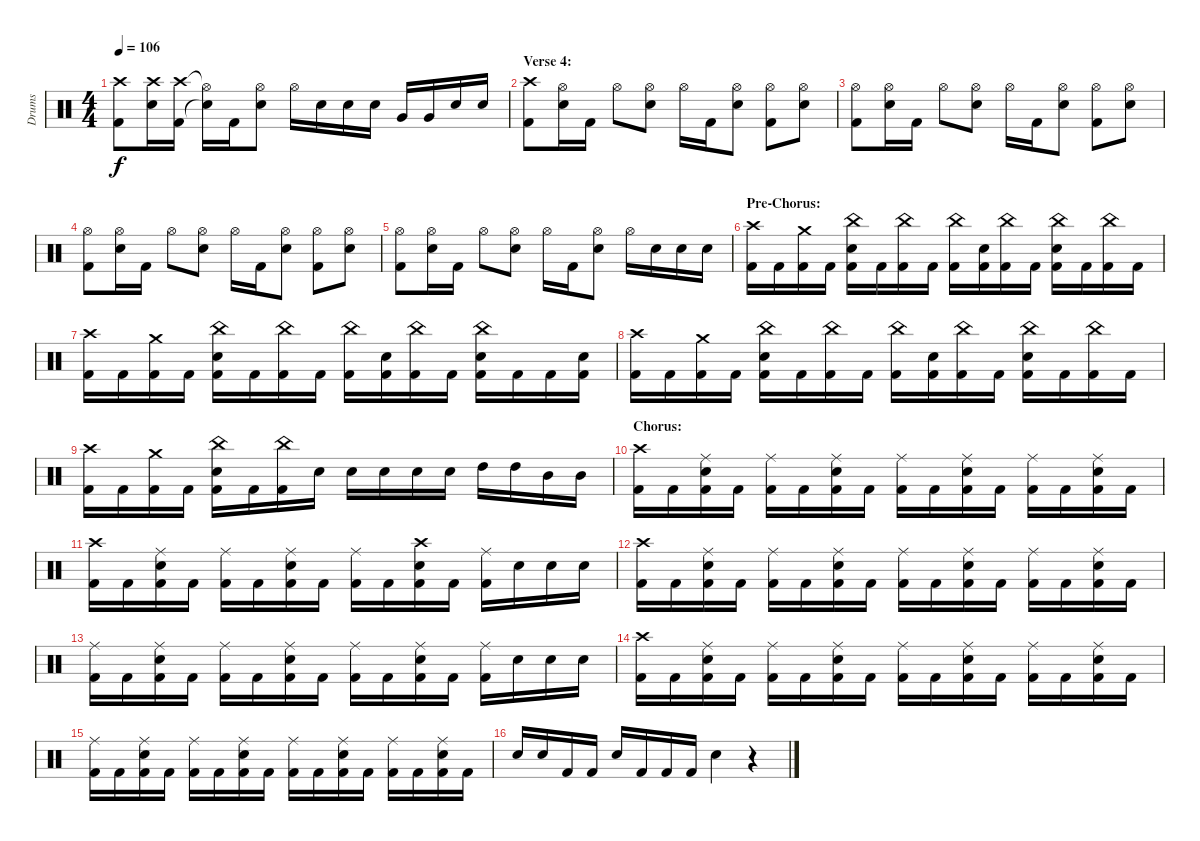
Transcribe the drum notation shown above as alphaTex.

\track ("Drums" "Drums") {instrument percussion}
\staff {score}
\articulation defaults
\ts (4 4)
\tempo 106
\clef neutral
\ks c
("Crash high (hit)" "Kick (hit) 2").8{dy f} ("Crash high (hit)" "Electric Snare (hit)").16 ("Crash high (hit)" "Kick (hit) 2").16 ("Hi-Hat (open)"{t} "Snare (hit)"{t}).16 "Kick (hit) 2".16 ("Hi-Hat (open)" "Electric Snare (hit)").8 "Hi-Hat (open)".16 "Electric Snare (hit)".16 "Electric Snare (hit)".16 "Electric Snare (hit)".16 "Very Low Tom (hit)".16 "Very Low Tom (hit)".16 "Electric Snare (hit)".16 "Electric Snare (hit)".16 |
\section ("" "Verse 4:")
("Crash high (hit)" "Kick (hit) 2").8 ("Hi-Hat (open)" "Electric Snare (hit)").16 "Kick (hit) 2".16 "Hi-Hat (open)".8 ("Hi-Hat (open)" "Electric Snare (hit)").8 "Hi-Hat (open)".16 "Kick (hit) 2".16 ("Hi-Hat (open)" "Electric Snare (hit)").8 ("Hi-Hat (open)" "Kick (hit) 2").8 ("Hi-Hat (open)" "Electric Snare (hit)").8 |
("Hi-Hat (open)" "Kick (hit) 2").8 ("Hi-Hat (open)" "Electric Snare (hit)").16 "Kick (hit) 2".16 "Hi-Hat (open)".8 ("Hi-Hat (open)" "Electric Snare (hit)").8 "Hi-Hat (open)".16 "Kick (hit) 2".16 ("Hi-Hat (open)" "Electric Snare (hit)").8 ("Hi-Hat (open)" "Kick (hit) 2").8 ("Hi-Hat (open)" "Electric Snare (hit)").8 |
("Hi-Hat (open)" "Kick (hit) 2").8 ("Hi-Hat (open)" "Electric Snare (hit)").16 "Kick (hit) 2".16 "Hi-Hat (open)".8 ("Hi-Hat (open)" "Electric Snare (hit)").8 "Hi-Hat (open)".16 "Kick (hit) 2".16 ("Hi-Hat (open)" "Electric Snare (hit)").8 ("Hi-Hat (open)" "Kick (hit) 2").8 ("Hi-Hat (open)" "Electric Snare (hit)").8 |
("Hi-Hat (open)" "Kick (hit) 2").8 ("Hi-Hat (open)" "Electric Snare (hit)").16 "Kick (hit) 2".16 "Hi-Hat (open)".8 ("Hi-Hat (open)" "Electric Snare (hit)").8 "Hi-Hat (open)".16 "Kick (hit) 2".16 ("Hi-Hat (open)" "Electric Snare (hit)").8 "Hi-Hat (open)".16 "Electric Snare (hit)".16 "Electric Snare (hit)".16 "Electric Snare (hit)".16 |
\section ("" "Pre-Chorus:")
("Crash high (hit)" "Kick (hit) 2").16 "Kick (hit) 2".16 ("Crash medium (hit)" "Kick (hit) 2").16 "Kick (hit) 2".16 ("China (hit)" "Electric Snare (hit)" "Kick (hit) 2").16 "Kick (hit) 2".16 ("China (hit)" "Kick (hit) 2").16 "Kick (hit) 2".16 ("China (hit)" "Kick (hit) 2").16 ("Electric Snare (hit)" "Kick (hit) 2").16 ("China (hit)" "Kick (hit) 2").16 "Kick (hit) 2".16 ("China (hit)" "Electric Snare (hit)" "Kick (hit) 2").16 "Kick (hit) 2".16 ("China (hit)" "Kick (hit) 2").16 "Kick (hit) 2".16 |
("Crash high (hit)" "Kick (hit) 2").16 "Kick (hit) 2".16 ("Crash medium (hit)" "Kick (hit) 2").16 "Kick (hit) 2".16 ("China (hit)" "Electric Snare (hit)" "Kick (hit) 2").16 "Kick (hit) 2".16 ("China (hit)" "Kick (hit) 2").16 "Kick (hit) 2".16 ("China (hit)" "Kick (hit) 2").16 ("Electric Snare (hit)" "Kick (hit) 2").16 ("China (hit)" "Kick (hit) 2").16 "Kick (hit) 2".16 ("China (hit)" "Electric Snare (hit)" "Kick (hit) 2").16 "Kick (hit) 2".16 "Kick (hit) 2".16 ("Electric Snare (hit)" "Kick (hit) 2").16 |
("Crash high (hit)" "Kick (hit) 2").16 "Kick (hit) 2".16 ("Crash medium (hit)" "Kick (hit) 2").16 "Kick (hit) 2".16 ("China (hit)" "Electric Snare (hit)" "Kick (hit) 2").16 "Kick (hit) 2".16 ("China (hit)" "Kick (hit) 2").16 "Kick (hit) 2".16 ("China (hit)" "Kick (hit) 2").16 ("Electric Snare (hit)" "Kick (hit) 2").16 ("China (hit)" "Kick (hit) 2").16 "Kick (hit) 2".16 ("China (hit)" "Electric Snare (hit)" "Kick (hit) 2").16 "Kick (hit) 2".16 ("China (hit)" "Kick (hit) 2").16 "Kick (hit) 2".16 |
("Crash high (hit)" "Kick (hit) 2").16 "Kick (hit) 2".16 ("Crash medium (hit)" "Kick (hit) 2").16 "Kick (hit) 2".16 ("China (hit)" "Electric Snare (hit)" "Kick (hit) 2").16 "Kick (hit) 2".16 ("China (hit)" "Kick (hit) 2").16 "Electric Snare (hit)".16 "Electric Snare (hit)".16 "Electric Snare (hit)".16 "Electric Snare (hit)".16 "Electric Snare (hit)".16 "High Tom (hit)".16 "High Tom (hit)".16 "Mid Tom (hit)".16 "Mid Tom (hit)".16 |
\section ("" "Chorus:")
("Crash high (hit)" "Kick (hit) 2").16 "Kick (hit) 2".16 ("Ride (middle)" "Electric Snare (hit)" "Kick (hit) 2").16 "Kick (hit) 2".16 ("Ride (middle)" "Kick (hit) 2").16 "Kick (hit) 2".16 ("Ride (middle)" "Electric Snare (hit)" "Kick (hit) 2").16 "Kick (hit) 2".16 ("Ride (middle)" "Kick (hit) 2").16 "Kick (hit) 2".16 ("Ride (middle)" "Electric Snare (hit)" "Kick (hit) 2").16 "Kick (hit) 2".16 ("Ride (middle)" "Kick (hit) 2").16 "Kick (hit) 2".16 ("Ride (middle)" "Electric Snare (hit)" "Kick (hit) 2").16 "Kick (hit) 2".16 |
("Crash high (hit)" "Kick (hit) 2").16 "Kick (hit) 2".16 ("Ride (middle)" "Electric Snare (hit)" "Kick (hit) 2").16 "Kick (hit) 2".16 ("Ride (middle)" "Kick (hit) 2").16 "Kick (hit) 2".16 ("Ride (middle)" "Electric Snare (hit)" "Kick (hit) 2").16 "Kick (hit) 2".16 ("Ride (middle)" "Kick (hit) 2").16 "Kick (hit) 2".16 ("Crash high (hit)" "Electric Snare (hit)" "Kick (hit) 2").16 "Kick (hit) 2".16 ("Ride (middle)" "Kick (hit) 2").16 "Electric Snare (hit)".16 "Electric Snare (hit)".16 "Electric Snare (hit)".16 |
("Crash high (hit)" "Kick (hit) 2").16 "Kick (hit) 2".16 ("Ride (middle)" "Electric Snare (hit)" "Kick (hit) 2").16 "Kick (hit) 2".16 ("Ride (middle)" "Kick (hit) 2").16 "Kick (hit) 2".16 ("Ride (middle)" "Electric Snare (hit)" "Kick (hit) 2").16 "Kick (hit) 2".16 ("Ride (middle)" "Kick (hit) 2").16 "Kick (hit) 2".16 ("Ride (middle)" "Electric Snare (hit)" "Kick (hit) 2").16 "Kick (hit) 2".16 ("Ride (middle)" "Kick (hit) 2").16 "Kick (hit) 2".16 ("Ride (middle)" "Electric Snare (hit)" "Kick (hit) 2").16 "Kick (hit) 2".16 |
("Ride (middle)" "Kick (hit) 2").16 "Kick (hit) 2".16 ("Ride (middle)" "Electric Snare (hit)" "Kick (hit) 2").16 "Kick (hit) 2".16 ("Ride (middle)" "Kick (hit) 2").16 "Kick (hit) 2".16 ("Ride (middle)" "Electric Snare (hit)" "Kick (hit) 2").16 "Kick (hit) 2".16 ("Ride (middle)" "Kick (hit) 2").16 "Kick (hit) 2".16 ("Ride (middle)" "Electric Snare (hit)" "Kick (hit) 2").16 "Kick (hit) 2".16 ("Ride (middle)" "Kick (hit) 2").16 "Electric Snare (hit)".16 "Electric Snare (hit)".16 "Electric Snare (hit)".16 |
("Crash high (hit)" "Kick (hit) 2").16 "Kick (hit) 2".16 ("Ride (middle)" "Electric Snare (hit)" "Kick (hit) 2").16 "Kick (hit) 2".16 ("Ride (middle)" "Kick (hit) 2").16 "Kick (hit) 2".16 ("Ride (middle)" "Electric Snare (hit)" "Kick (hit) 2").16 "Kick (hit) 2".16 ("Ride (middle)" "Kick (hit) 2").16 "Kick (hit) 2".16 ("Ride (middle)" "Electric Snare (hit)" "Kick (hit) 2").16 "Kick (hit) 2".16 ("Ride (middle)" "Kick (hit) 2").16 "Kick (hit) 2".16 ("Ride (middle)" "Electric Snare (hit)" "Kick (hit) 2").16 "Kick (hit) 2".16 |
("Ride (middle)" "Kick (hit) 2").16 "Kick (hit) 2".16 ("Ride (middle)" "Electric Snare (hit)" "Kick (hit) 2").16 "Kick (hit) 2".16 ("Ride (middle)" "Kick (hit) 2").16 "Kick (hit) 2".16 ("Ride (middle)" "Electric Snare (hit)" "Kick (hit) 2").16 "Kick (hit) 2".16 ("Ride (middle)" "Kick (hit) 2").16 "Kick (hit) 2".16 ("Ride (middle)" "Electric Snare (hit)" "Kick (hit) 2").16 "Kick (hit) 2".16 ("Ride (middle)" "Kick (hit) 2").16 "Kick (hit) 2".16 ("Ride (middle)" "Electric Snare (hit)" "Kick (hit) 2").16 "Kick (hit) 2".16 |
"Electric Snare (hit)".16 "Electric Snare (hit)".16 "Kick (hit) 2".16 "Kick (hit) 2".16 "Electric Snare (hit)".16 "Kick (hit) 2".16 "Kick (hit) 2".16 "Kick (hit) 2".16 "Electric Snare (hit)".4 r.4
